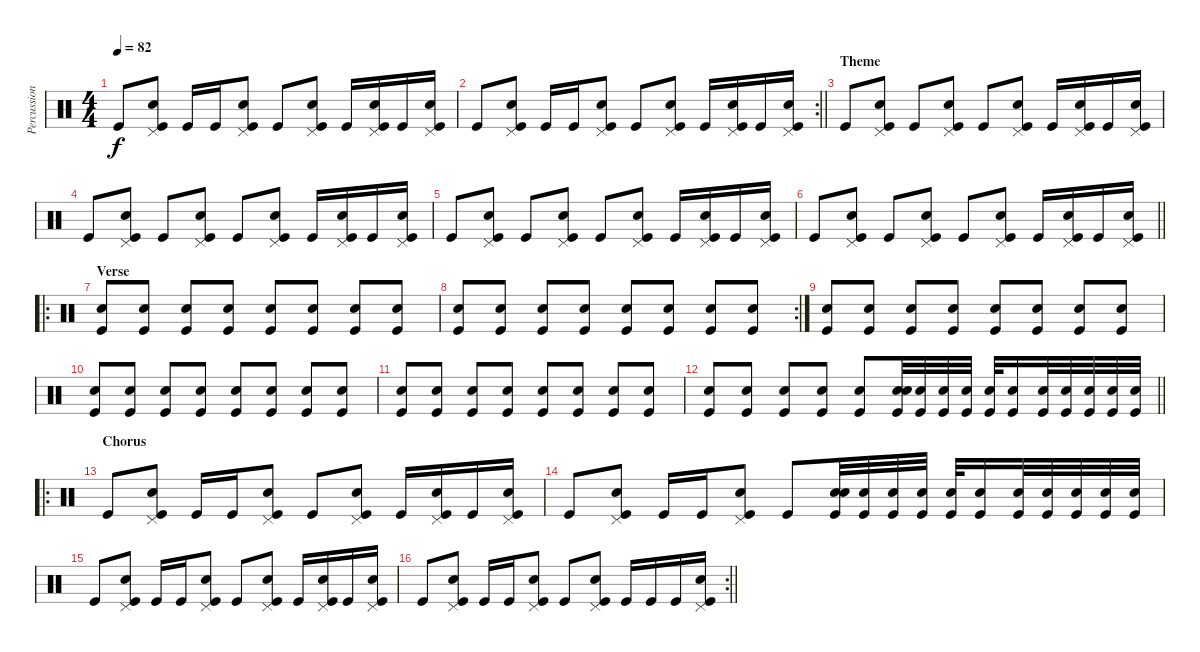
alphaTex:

\track ("Percussion" "Percussion") {instrument percussion}
\staff {score}
\articulation defaults
\ts (4 4)
\tempo 82
\clef neutral
\ks c "Kick (hit)".8{dy f}
("Pedal Hi-Hat (hit)" "Kick (hit)" "Snare (hit) 2").8 "Kick (hit)".16 "Kick (hit)".16 ("Pedal Hi-Hat (hit)" "Kick (hit)" "Snare (hit) 2").8 "Kick (hit)".8 ("Pedal Hi-Hat (hit)" "Kick (hit)" "Snare (hit) 2").8 "Kick (hit)".16 ("Pedal Hi-Hat (hit)" "Kick (hit)" "Snare (hit) 2").16 "Kick (hit)".16 ("Pedal Hi-Hat (hit)" "Kick (hit)" "Snare (hit) 2").16 |
\rc 2
\barLineRight lightlight "Kick (hit)".8
("Pedal Hi-Hat (hit)" "Kick (hit)" "Snare (hit) 2").8 "Kick (hit)".16 "Kick (hit)".16 ("Pedal Hi-Hat (hit)" "Kick (hit)" "Snare (hit) 2").8 "Kick (hit)".8 ("Pedal Hi-Hat (hit)" "Kick (hit)" "Snare (hit) 2").8 "Kick (hit)".16 ("Pedal Hi-Hat (hit)" "Kick (hit)" "Snare (hit) 2").16 "Kick (hit)".16 ("Pedal Hi-Hat (hit)" "Kick (hit)" "Snare (hit) 2").16 |
\section ("" "Theme")
"Kick (hit)".8 ("Pedal Hi-Hat (hit)" "Kick (hit)" "Snare (hit) 2").8 "Kick (hit)".8 ("Pedal Hi-Hat (hit)" "Kick (hit)" "Snare (hit) 2").8 "Kick (hit)".8 ("Pedal Hi-Hat (hit)" "Kick (hit)" "Snare (hit) 2").8 "Kick (hit)".16 ("Pedal Hi-Hat (hit)" "Kick (hit)" "Snare (hit) 2").16 "Kick (hit)".16 ("Pedal Hi-Hat (hit)" "Kick (hit)" "Snare (hit) 2").16 |
"Kick (hit)".8 ("Pedal Hi-Hat (hit)" "Kick (hit)" "Snare (hit) 2").8 "Kick (hit)".8 ("Pedal Hi-Hat (hit)" "Kick (hit)" "Snare (hit) 2").8 "Kick (hit)".8 ("Pedal Hi-Hat (hit)" "Kick (hit)" "Snare (hit) 2").8 "Kick (hit)".16 ("Pedal Hi-Hat (hit)" "Kick (hit)" "Snare (hit) 2").16 "Kick (hit)".16 ("Pedal Hi-Hat (hit)" "Kick (hit)" "Snare (hit) 2").16 |
"Kick (hit)".8 ("Pedal Hi-Hat (hit)" "Kick (hit)" "Snare (hit) 2").8 "Kick (hit)".8 ("Pedal Hi-Hat (hit)" "Kick (hit)" "Snare (hit) 2").8 "Kick (hit)".8 ("Pedal Hi-Hat (hit)" "Kick (hit)" "Snare (hit) 2").8 "Kick (hit)".16 ("Pedal Hi-Hat (hit)" "Kick (hit)" "Snare (hit) 2").16 "Kick (hit)".16 ("Pedal Hi-Hat (hit)" "Kick (hit)" "Snare (hit) 2").16 |
\barLineRight lightlight "Kick (hit)".8
("Pedal Hi-Hat (hit)" "Kick (hit)" "Snare (hit) 2").8 "Kick (hit)".8 ("Pedal Hi-Hat (hit)" "Kick (hit)" "Snare (hit) 2").8 "Kick (hit)".8 ("Pedal Hi-Hat (hit)" "Kick (hit)" "Snare (hit) 2").8 "Kick (hit)".16 ("Pedal Hi-Hat (hit)" "Kick (hit)" "Snare (hit) 2").16 "Kick (hit)".16 ("Pedal Hi-Hat (hit)" "Kick (hit)" "Snare (hit) 2").16 |
\ro
\section ("" "Verse")
("Kick (hit)" "Snare (hit) 2").8{volume 12} ("Kick (hit)" "Snare (hit) 2").8 ("Kick (hit)" "Snare (hit) 2").8 ("Kick (hit)" "Snare (hit) 2").8 ("Kick (hit)" "Snare (hit) 2").8 ("Kick (hit)" "Snare (hit) 2").8 ("Kick (hit)" "Snare (hit) 2").8 ("Kick (hit)" "Snare (hit) 2").8 |
\rc 2
("Kick (hit)" "Snare (hit) 2").8 ("Kick (hit)" "Snare (hit) 2").8 ("Kick (hit)" "Snare (hit) 2").8 ("Kick (hit)" "Snare (hit) 2").8 ("Kick (hit)" "Snare (hit) 2").8 ("Kick (hit)" "Snare (hit) 2").8 ("Kick (hit)" "Snare (hit) 2").8 ("Kick (hit)" "Snare (hit) 2").8 |
("Kick (hit)" "Snare (hit) 2").8 ("Kick (hit)" "Snare (hit) 2").8 ("Kick (hit)" "Snare (hit) 2").8 ("Kick (hit)" "Snare (hit) 2").8 ("Kick (hit)" "Snare (hit) 2").8 ("Kick (hit)" "Snare (hit) 2").8 ("Kick (hit)" "Snare (hit) 2").8 ("Kick (hit)" "Snare (hit) 2").8 |
("Kick (hit)" "Snare (hit) 2").8 ("Kick (hit)" "Snare (hit) 2").8 ("Kick (hit)" "Snare (hit) 2").8 ("Kick (hit)" "Snare (hit) 2").8 ("Kick (hit)" "Snare (hit) 2").8 ("Kick (hit)" "Snare (hit) 2").8 ("Kick (hit)" "Snare (hit) 2").8 ("Kick (hit)" "Snare (hit) 2").8 |
("Kick (hit)" "Snare (hit) 2").8 ("Kick (hit)" "Snare (hit) 2").8 ("Kick (hit)" "Snare (hit) 2").8 ("Kick (hit)" "Snare (hit) 2").8 ("Kick (hit)" "Snare (hit) 2").8 ("Kick (hit)" "Snare (hit) 2").8 ("Kick (hit)" "Snare (hit) 2").8 ("Kick (hit)" "Snare (hit) 2").8 |
\barLineRight lightlight
("Kick (hit)" "Snare (hit) 2").8 ("Kick (hit)" "Snare (hit) 2").8 ("Kick (hit)" "Snare (hit) 2").8 ("Kick (hit)" "Snare (hit) 2").8 ("Kick (hit)" "Snare (hit) 2").8 ("Snare (hit) 2" "Kick (hit)" "Snare (hit) 2").32{volume 16} ("Snare (hit) 2" "Kick (hit)").32 ("Snare (hit) 2" "Kick (hit)").32 ("Snare (hit) 2" "Kick (hit)").32 ("Snare (hit) 2" "Kick (hit)").32 ("Snare (hit) 2" "Kick (hit)").16 ("Snare (hit) 2" "Kick (hit)").32 ("Snare (hit) 2" "Kick (hit)").32 ("Snare (hit) 2" "Kick (hit)").32 ("Snare (hit) 2" "Kick (hit)").32 ("Snare (hit) 2" "Kick (hit)").32{volume 12} |
\ro
\section ("" "Chorus")
"Kick (hit)".8 ("Pedal Hi-Hat (hit)" "Kick (hit)" "Snare (hit) 2").8 "Kick (hit)".16 "Kick (hit)".16 ("Pedal Hi-Hat (hit)" "Kick (hit)" "Snare (hit) 2").8 "Kick (hit)".8 ("Pedal Hi-Hat (hit)" "Kick (hit)" "Snare (hit) 2").8 "Kick (hit)".16 ("Pedal Hi-Hat (hit)" "Kick (hit)" "Snare (hit) 2").16 "Kick (hit)".16 ("Pedal Hi-Hat (hit)" "Kick (hit)" "Snare (hit) 2").16 |
"Kick (hit)".8 ("Pedal Hi-Hat (hit)" "Kick (hit)" "Snare (hit) 2").8 "Kick (hit)".16 "Kick (hit)".16 ("Pedal Hi-Hat (hit)" "Kick (hit)" "Snare (hit) 2").8 "Kick (hit)".8 ("Snare (hit) 2" "Kick (hit)" "Snare (hit) 2").32{volume 16} ("Snare (hit) 2" "Kick (hit)").32 ("Snare (hit) 2" "Kick (hit)").32 ("Snare (hit) 2" "Kick (hit)").32 ("Snare (hit) 2" "Kick (hit)").32 ("Snare (hit) 2" "Kick (hit)").16 ("Snare (hit) 2" "Kick (hit)").32 ("Snare (hit) 2" "Kick (hit)").32 ("Snare (hit) 2" "Kick (hit)").32 ("Snare (hit) 2" "Kick (hit)").32 ("Snare (hit) 2" "Kick (hit)").32{volume 12} |
"Kick (hit)".8 ("Pedal Hi-Hat (hit)" "Kick (hit)" "Snare (hit) 2").8 "Kick (hit)".16 "Kick (hit)".16 ("Pedal Hi-Hat (hit)" "Kick (hit)" "Snare (hit) 2").8 "Kick (hit)".8 ("Pedal Hi-Hat (hit)" "Kick (hit)" "Snare (hit) 2").8 "Kick (hit)".16 ("Pedal Hi-Hat (hit)" "Kick (hit)" "Snare (hit) 2").16 "Kick (hit)".16 ("Pedal Hi-Hat (hit)" "Kick (hit)" "Snare (hit) 2").16 |
\rc 2
\barLineRight lightlight "Kick (hit)".8
("Pedal Hi-Hat (hit)" "Kick (hit)" "Snare (hit) 2").8 "Kick (hit)".16 "Kick (hit)".16 ("Pedal Hi-Hat (hit)" "Kick (hit)" "Snare (hit) 2").8 "Kick (hit)".8 ("Pedal Hi-Hat (hit)" "Kick (hit)" "Snare (hit) 2").8 "Kick (hit)".16 "Kick (hit)".16 "Kick (hit)".16 ("Pedal Hi-Hat (hit)" "Kick (hit)" "Snare (hit) 2").16
